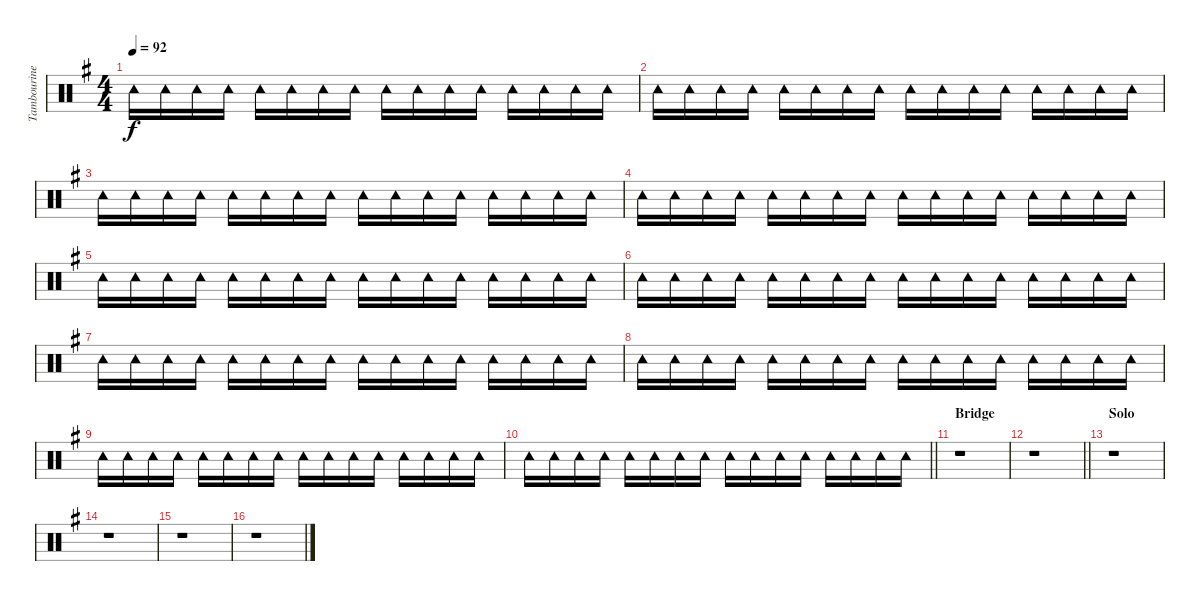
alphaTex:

\track ("Tambourine" "Tambourine") {instrument percussion}
\staff {score}
\articulation defaults
\ts (4 4)
\tempo 92
\clef neutral
\ks g "Tambourine (hit)".16{dy f} "Tambourine (hit)".16 "Tambourine (hit)".16 "Tambourine (hit)".16 "Tambourine (hit)".16 "Tambourine (hit)".16 "Tambourine (hit)".16 "Tambourine (hit)".16 "Tambourine (hit)".16 "Tambourine (hit)".16 "Tambourine (hit)".16 "Tambourine (hit)".16 "Tambourine (hit)".16 "Tambourine (hit)".16 "Tambourine (hit)".16 "Tambourine (hit)".16
|
"Tambourine (hit)".16 "Tambourine (hit)".16 "Tambourine (hit)".16 "Tambourine (hit)".16 "Tambourine (hit)".16 "Tambourine (hit)".16 "Tambourine (hit)".16 "Tambourine (hit)".16 "Tambourine (hit)".16 "Tambourine (hit)".16 "Tambourine (hit)".16 "Tambourine (hit)".16 "Tambourine (hit)".16 "Tambourine (hit)".16 "Tambourine (hit)".16 "Tambourine (hit)".16 |
"Tambourine (hit)".16 "Tambourine (hit)".16 "Tambourine (hit)".16 "Tambourine (hit)".16 "Tambourine (hit)".16 "Tambourine (hit)".16 "Tambourine (hit)".16 "Tambourine (hit)".16 "Tambourine (hit)".16 "Tambourine (hit)".16 "Tambourine (hit)".16 "Tambourine (hit)".16 "Tambourine (hit)".16 "Tambourine (hit)".16 "Tambourine (hit)".16 "Tambourine (hit)".16 |
"Tambourine (hit)".16 "Tambourine (hit)".16 "Tambourine (hit)".16 "Tambourine (hit)".16 "Tambourine (hit)".16 "Tambourine (hit)".16 "Tambourine (hit)".16 "Tambourine (hit)".16 "Tambourine (hit)".16 "Tambourine (hit)".16 "Tambourine (hit)".16 "Tambourine (hit)".16 "Tambourine (hit)".16 "Tambourine (hit)".16 "Tambourine (hit)".16 "Tambourine (hit)".16 |
"Tambourine (hit)".16 "Tambourine (hit)".16 "Tambourine (hit)".16 "Tambourine (hit)".16 "Tambourine (hit)".16 "Tambourine (hit)".16 "Tambourine (hit)".16 "Tambourine (hit)".16 "Tambourine (hit)".16 "Tambourine (hit)".16 "Tambourine (hit)".16 "Tambourine (hit)".16 "Tambourine (hit)".16 "Tambourine (hit)".16 "Tambourine (hit)".16 "Tambourine (hit)".16 |
"Tambourine (hit)".16 "Tambourine (hit)".16 "Tambourine (hit)".16 "Tambourine (hit)".16 "Tambourine (hit)".16 "Tambourine (hit)".16 "Tambourine (hit)".16 "Tambourine (hit)".16 "Tambourine (hit)".16 "Tambourine (hit)".16 "Tambourine (hit)".16 "Tambourine (hit)".16 "Tambourine (hit)".16 "Tambourine (hit)".16 "Tambourine (hit)".16 "Tambourine (hit)".16 |
"Tambourine (hit)".16 "Tambourine (hit)".16 "Tambourine (hit)".16 "Tambourine (hit)".16 "Tambourine (hit)".16 "Tambourine (hit)".16 "Tambourine (hit)".16 "Tambourine (hit)".16 "Tambourine (hit)".16 "Tambourine (hit)".16 "Tambourine (hit)".16 "Tambourine (hit)".16 "Tambourine (hit)".16 "Tambourine (hit)".16 "Tambourine (hit)".16 "Tambourine (hit)".16 |
"Tambourine (hit)".16 "Tambourine (hit)".16 "Tambourine (hit)".16 "Tambourine (hit)".16 "Tambourine (hit)".16 "Tambourine (hit)".16 "Tambourine (hit)".16 "Tambourine (hit)".16 "Tambourine (hit)".16 "Tambourine (hit)".16 "Tambourine (hit)".16 "Tambourine (hit)".16 "Tambourine (hit)".16 "Tambourine (hit)".16 "Tambourine (hit)".16 "Tambourine (hit)".16 |
"Tambourine (hit)".16 "Tambourine (hit)".16 "Tambourine (hit)".16 "Tambourine (hit)".16 "Tambourine (hit)".16 "Tambourine (hit)".16 "Tambourine (hit)".16 "Tambourine (hit)".16 "Tambourine (hit)".16 "Tambourine (hit)".16 "Tambourine (hit)".16 "Tambourine (hit)".16 "Tambourine (hit)".16 "Tambourine (hit)".16 "Tambourine (hit)".16 "Tambourine (hit)".16 |
\barLineRight lightlight "Tambourine (hit)".16 "Tambourine (hit)".16 "Tambourine (hit)".16 "Tambourine (hit)".16 "Tambourine (hit)".16 "Tambourine (hit)".16 "Tambourine (hit)".16 "Tambourine (hit)".16 "Tambourine (hit)".16 "Tambourine (hit)".16 "Tambourine (hit)".16 "Tambourine (hit)".16 "Tambourine (hit)".16 "Tambourine (hit)".16 "Tambourine (hit)".16 "Tambourine (hit)".16
|
\section ("" "Bridge")
r.1 |
\barLineRight lightlight
r.1 |
\section ("" "Solo")
r.1 |
r.1 |
r.1 |
r.1
